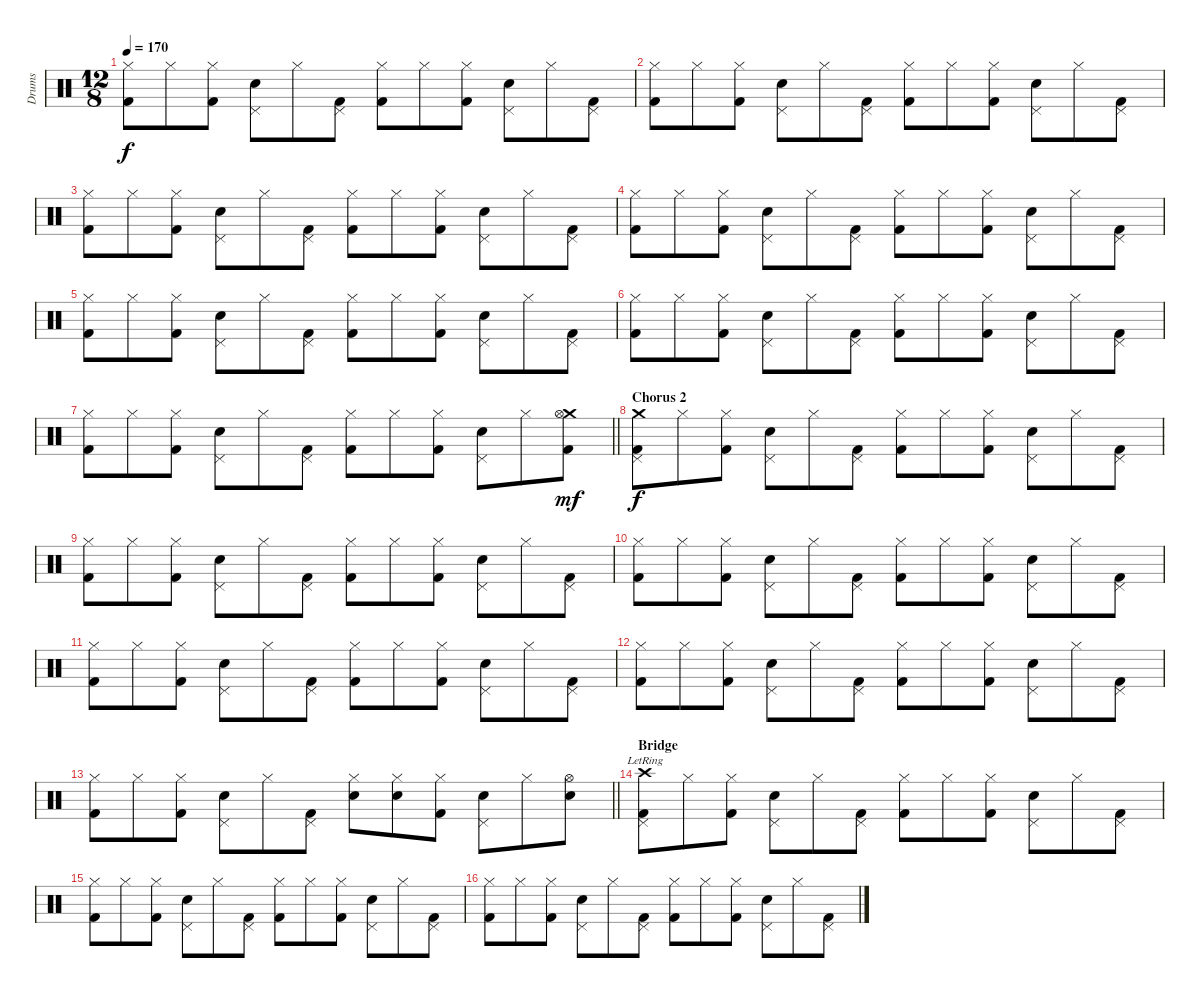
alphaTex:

\track ("Drums" "Drums") {instrument percussion}
\staff {score}
\articulation defaults
\ts (12 8)
\tempo 170
\clef neutral
\ks c
("Kick (hit) 2" "Hi-Hat (closed)").8{dy f} "Hi-Hat (closed)".8 ("Kick (hit) 2" "Hi-Hat (closed)").8 ("Snare (hit) 2" "Pedal Hi-Hat (hit)").8 "Hi-Hat (closed)".8 ("Kick (hit) 2" "Pedal Hi-Hat (hit)").8 ("Kick (hit) 2" "Hi-Hat (closed)").8 "Hi-Hat (closed)".8 ("Kick (hit) 2" "Hi-Hat (closed)").8 ("Snare (hit) 2" "Pedal Hi-Hat (hit)").8 "Hi-Hat (closed)".8 ("Kick (hit) 2" "Pedal Hi-Hat (hit)").8 |
("Kick (hit) 2" "Hi-Hat (closed)").8 "Hi-Hat (closed)".8 ("Kick (hit) 2" "Hi-Hat (closed)").8 ("Snare (hit) 2" "Pedal Hi-Hat (hit)").8 "Hi-Hat (closed)".8 ("Kick (hit) 2" "Pedal Hi-Hat (hit)").8 ("Kick (hit) 2" "Hi-Hat (closed)").8 "Hi-Hat (closed)".8 ("Kick (hit) 2" "Hi-Hat (closed)").8 ("Snare (hit) 2" "Pedal Hi-Hat (hit)").8 "Hi-Hat (closed)".8 ("Kick (hit) 2" "Pedal Hi-Hat (hit)").8 |
("Kick (hit) 2" "Hi-Hat (closed)").8 "Hi-Hat (closed)".8 ("Kick (hit) 2" "Hi-Hat (closed)").8 ("Snare (hit) 2" "Pedal Hi-Hat (hit)").8 "Hi-Hat (closed)".8 ("Kick (hit) 2" "Pedal Hi-Hat (hit)").8 ("Kick (hit) 2" "Hi-Hat (closed)").8 "Hi-Hat (closed)".8 ("Kick (hit) 2" "Hi-Hat (closed)").8 ("Snare (hit) 2" "Pedal Hi-Hat (hit)").8 "Hi-Hat (closed)".8 ("Kick (hit) 2" "Pedal Hi-Hat (hit)").8 |
("Kick (hit) 2" "Hi-Hat (closed)").8 "Hi-Hat (closed)".8 ("Kick (hit) 2" "Hi-Hat (closed)").8 ("Snare (hit) 2" "Pedal Hi-Hat (hit)").8 "Hi-Hat (closed)".8 ("Kick (hit) 2" "Pedal Hi-Hat (hit)").8 ("Kick (hit) 2" "Hi-Hat (closed)").8 "Hi-Hat (closed)".8 ("Kick (hit) 2" "Hi-Hat (closed)").8 ("Snare (hit) 2" "Pedal Hi-Hat (hit)").8 "Hi-Hat (closed)".8 ("Kick (hit) 2" "Pedal Hi-Hat (hit)").8 |
("Kick (hit) 2" "Hi-Hat (closed)").8 "Hi-Hat (closed)".8 ("Kick (hit) 2" "Hi-Hat (closed)").8 ("Snare (hit) 2" "Pedal Hi-Hat (hit)").8 "Hi-Hat (closed)".8 ("Kick (hit) 2" "Pedal Hi-Hat (hit)").8 ("Kick (hit) 2" "Hi-Hat (closed)").8 "Hi-Hat (closed)".8 ("Kick (hit) 2" "Hi-Hat (closed)").8 ("Snare (hit) 2" "Pedal Hi-Hat (hit)").8 "Hi-Hat (closed)".8 ("Kick (hit) 2" "Pedal Hi-Hat (hit)").8 |
("Kick (hit) 2" "Hi-Hat (closed)").8 "Hi-Hat (closed)".8 ("Kick (hit) 2" "Hi-Hat (closed)").8 ("Snare (hit) 2" "Pedal Hi-Hat (hit)").8 "Hi-Hat (closed)".8 ("Kick (hit) 2" "Pedal Hi-Hat (hit)").8 ("Kick (hit) 2" "Hi-Hat (closed)").8 "Hi-Hat (closed)".8 ("Kick (hit) 2" "Hi-Hat (closed)").8 ("Snare (hit) 2" "Pedal Hi-Hat (hit)").8 "Hi-Hat (closed)".8 ("Kick (hit) 2" "Pedal Hi-Hat (hit)").8 |
\barLineRight lightlight
("Kick (hit) 2" "Hi-Hat (closed)").8 "Hi-Hat (closed)".8 ("Kick (hit) 2" "Hi-Hat (closed)").8 ("Snare (hit) 2" "Pedal Hi-Hat (hit)").8 "Hi-Hat (closed)".8 ("Kick (hit) 2" "Pedal Hi-Hat (hit)").8 ("Kick (hit) 2" "Hi-Hat (closed)").8 "Hi-Hat (closed)".8 ("Kick (hit) 2" "Hi-Hat (closed)").8 ("Snare (hit) 2" "Pedal Hi-Hat (hit)").8 "Hi-Hat (closed)".8 ("Kick (hit) 2" "Crash medium (hit)" "Hi-Hat (open)").8{dy mf} |
\section ("" "Chorus 2")
("Kick (hit) 2" "Crash medium (hit)" "Pedal Hi-Hat (hit)").8{dy f} "Hi-Hat (closed)".8 ("Kick (hit) 2" "Hi-Hat (closed)").8 ("Snare (hit) 2" "Pedal Hi-Hat (hit)").8 "Hi-Hat (closed)".8 ("Kick (hit) 2" "Pedal Hi-Hat (hit)").8 ("Kick (hit) 2" "Hi-Hat (closed)").8 "Hi-Hat (closed)".8 ("Kick (hit) 2" "Hi-Hat (closed)").8 ("Snare (hit) 2" "Pedal Hi-Hat (hit)").8 "Hi-Hat (closed)".8 ("Kick (hit) 2" "Pedal Hi-Hat (hit)").8 |
("Kick (hit) 2" "Hi-Hat (closed)").8 "Hi-Hat (closed)".8 ("Kick (hit) 2" "Hi-Hat (closed)").8 ("Snare (hit) 2" "Pedal Hi-Hat (hit)").8 "Hi-Hat (closed)".8 ("Kick (hit) 2" "Pedal Hi-Hat (hit)").8 ("Kick (hit) 2" "Hi-Hat (closed)").8 "Hi-Hat (closed)".8 ("Kick (hit) 2" "Hi-Hat (closed)").8 ("Snare (hit) 2" "Pedal Hi-Hat (hit)").8 "Hi-Hat (closed)".8 ("Kick (hit) 2" "Pedal Hi-Hat (hit)").8 |
("Kick (hit) 2" "Hi-Hat (closed)").8 "Hi-Hat (closed)".8 ("Kick (hit) 2" "Hi-Hat (closed)").8 ("Snare (hit) 2" "Pedal Hi-Hat (hit)").8 "Hi-Hat (closed)".8 ("Kick (hit) 2" "Pedal Hi-Hat (hit)").8 ("Kick (hit) 2" "Hi-Hat (closed)").8 "Hi-Hat (closed)".8 ("Kick (hit) 2" "Hi-Hat (closed)").8 ("Snare (hit) 2" "Pedal Hi-Hat (hit)").8 "Hi-Hat (closed)".8 ("Kick (hit) 2" "Pedal Hi-Hat (hit)").8 |
("Kick (hit) 2" "Hi-Hat (closed)").8 "Hi-Hat (closed)".8 ("Kick (hit) 2" "Hi-Hat (closed)").8 ("Snare (hit) 2" "Pedal Hi-Hat (hit)").8 "Hi-Hat (closed)".8 ("Kick (hit) 2" "Pedal Hi-Hat (hit)").8 ("Kick (hit) 2" "Hi-Hat (closed)").8 "Hi-Hat (closed)".8 ("Kick (hit) 2" "Hi-Hat (closed)").8 ("Snare (hit) 2" "Pedal Hi-Hat (hit)").8 "Hi-Hat (closed)".8 ("Kick (hit) 2" "Pedal Hi-Hat (hit)").8 |
("Kick (hit) 2" "Hi-Hat (closed)").8 "Hi-Hat (closed)".8 ("Kick (hit) 2" "Hi-Hat (closed)").8 ("Snare (hit) 2" "Pedal Hi-Hat (hit)").8 "Hi-Hat (closed)".8 ("Kick (hit) 2" "Pedal Hi-Hat (hit)").8 ("Kick (hit) 2" "Hi-Hat (closed)").8 "Hi-Hat (closed)".8 ("Kick (hit) 2" "Hi-Hat (closed)").8 ("Snare (hit) 2" "Pedal Hi-Hat (hit)").8 "Hi-Hat (closed)".8 ("Kick (hit) 2" "Pedal Hi-Hat (hit)").8 |
\barLineRight lightlight
("Kick (hit) 2" "Hi-Hat (closed)").8 "Hi-Hat (closed)".8 ("Kick (hit) 2" "Hi-Hat (closed)").8 ("Snare (hit) 2" "Pedal Hi-Hat (hit)").8 "Hi-Hat (closed)".8 ("Kick (hit) 2" "Pedal Hi-Hat (hit)").8 ("Snare (hit) 2" "Hi-Hat (closed)").8 ("Snare (hit) 2" "Hi-Hat (closed)").8 ("Kick (hit) 2" "Hi-Hat (closed)").8 ("Snare (hit) 2" "Pedal Hi-Hat (hit)").8 "Hi-Hat (closed)".8 ("Snare (hit) 2" "Hi-Hat (open)").8 |
\section ("" "Bridge")
("Kick (hit) 2" "Crash high (hit)"{lr} "Pedal Hi-Hat (hit)").8 "Hi-Hat (closed)".8 ("Kick (hit) 2" "Hi-Hat (closed)").8 ("Snare (hit) 2" "Pedal Hi-Hat (hit)").8 "Hi-Hat (closed)".8 ("Kick (hit) 2" "Pedal Hi-Hat (hit)").8 ("Kick (hit) 2" "Hi-Hat (closed)").8 "Hi-Hat (closed)".8 ("Kick (hit) 2" "Hi-Hat (closed)").8 ("Snare (hit) 2" "Pedal Hi-Hat (hit)").8 "Hi-Hat (closed)".8 ("Kick (hit) 2" "Pedal Hi-Hat (hit)").8 |
("Kick (hit) 2" "Hi-Hat (closed)").8 "Hi-Hat (closed)".8 ("Kick (hit) 2" "Hi-Hat (closed)").8 ("Snare (hit) 2" "Pedal Hi-Hat (hit)").8 "Hi-Hat (closed)".8 ("Kick (hit) 2" "Pedal Hi-Hat (hit)").8 ("Kick (hit) 2" "Hi-Hat (closed)").8 "Hi-Hat (closed)".8 ("Kick (hit) 2" "Hi-Hat (closed)").8 ("Snare (hit) 2" "Pedal Hi-Hat (hit)").8 "Hi-Hat (closed)".8 ("Kick (hit) 2" "Pedal Hi-Hat (hit)").8 |
("Kick (hit) 2" "Hi-Hat (closed)").8 "Hi-Hat (closed)".8 ("Kick (hit) 2" "Hi-Hat (closed)").8 ("Snare (hit) 2" "Pedal Hi-Hat (hit)").8 "Hi-Hat (closed)".8 ("Kick (hit) 2" "Pedal Hi-Hat (hit)").8 ("Kick (hit) 2" "Hi-Hat (closed)").8 "Hi-Hat (closed)".8 ("Kick (hit) 2" "Hi-Hat (closed)").8 ("Snare (hit) 2" "Pedal Hi-Hat (hit)").8 "Hi-Hat (closed)".8 ("Kick (hit) 2" "Pedal Hi-Hat (hit)").8
